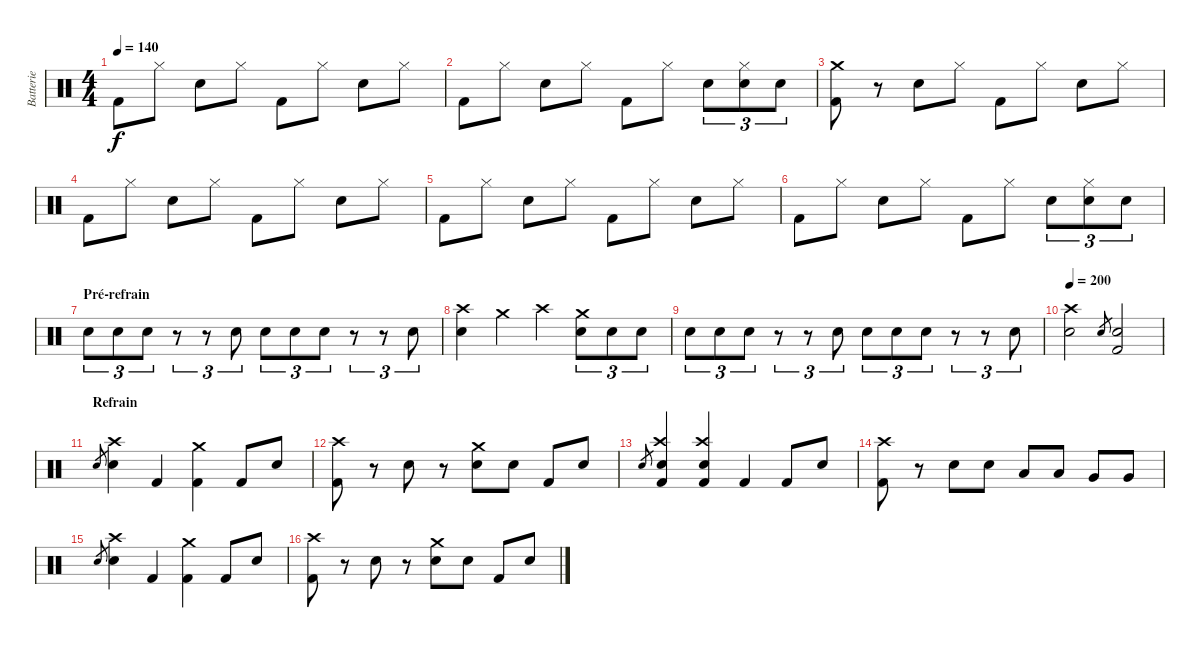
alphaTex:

\track ("Batterie" "Batterie") {instrument percussion}
\staff {score}
\articulation defaults
\ts (4 4)
\tempo 140
\clef neutral
\ks c "Kick (hit) 2".8{dy f} "Hi-Hat (closed)".8 "Electric Snare (hit)".8 "Hi-Hat (closed)".8 "Kick (hit) 2".8 "Hi-Hat (closed)".8 "Electric Snare (hit)".8 "Hi-Hat (closed)".8
|
"Kick (hit) 2".8 "Hi-Hat (closed)".8 "Electric Snare (hit)".8 "Hi-Hat (closed)".8 "Kick (hit) 2".8 "Hi-Hat (closed)".8 "Electric Snare (hit)".8{tu (3 2)} ("Hi-Hat (closed)" "Electric Snare (hit)").8{tu (3 2)} "Electric Snare (hit)".8{tu (3 2)} |
("Crash medium (hit)" "Kick (hit) 2").8 r.8 "Electric Snare (hit)".8 "Hi-Hat (closed)".8 "Kick (hit) 2".8 "Hi-Hat (closed)".8 "Electric Snare (hit)".8 "Hi-Hat (closed)".8 |
"Kick (hit) 2".8 "Hi-Hat (closed)".8 "Electric Snare (hit)".8 "Hi-Hat (closed)".8 "Kick (hit) 2".8 "Hi-Hat (closed)".8 "Electric Snare (hit)".8 "Hi-Hat (closed)".8 |
"Kick (hit) 2".8 "Hi-Hat (closed)".8 "Electric Snare (hit)".8 "Hi-Hat (closed)".8 "Kick (hit) 2".8 "Hi-Hat (closed)".8 "Electric Snare (hit)".8 "Hi-Hat (closed)".8 |
"Kick (hit) 2".8 "Hi-Hat (closed)".8 "Electric Snare (hit)".8 "Hi-Hat (closed)".8 "Kick (hit) 2".8 "Hi-Hat (closed)".8 "Electric Snare (hit)".8{tu (3 2)} ("Hi-Hat (closed)" "Electric Snare (hit)").8{tu (3 2)} "Electric Snare (hit)".8{tu (3 2)} |
\section ("" "Pré-refrain")
"Electric Snare (hit)".8{tu (3 2)} "Electric Snare (hit)".8{tu (3 2)} "Electric Snare (hit)".8{tu (3 2)} r.8{tu (3 2)} r.8{tu (3 2)} "Electric Snare (hit)".8{tu (3 2)} "Electric Snare (hit)".8{tu (3 2)} "Electric Snare (hit)".8{tu (3 2)} "Electric Snare (hit)".8{tu (3 2)} r.8{tu (3 2)} r.8{tu (3 2)} "Electric Snare (hit)".8{tu (3 2)} |
("Crash high (hit)" "Electric Snare (hit)").4 "Crash medium (hit)".4 "Crash high (hit)".4 ("Crash medium (hit)" "Electric Snare (hit)").8{tu (3 2)} "Electric Snare (hit)".8{tu (3 2)} "Electric Snare (hit)".8{tu (3 2)} |
"Electric Snare (hit)".8{tu (3 2)} "Electric Snare (hit)".8{tu (3 2)} "Electric Snare (hit)".8{tu (3 2)} r.8{tu (3 2)} r.8{tu (3 2)} "Electric Snare (hit)".8{tu (3 2)} "Electric Snare (hit)".8{tu (3 2)} "Electric Snare (hit)".8{tu (3 2)} "Electric Snare (hit)".8{tu (3 2)} r.8{tu (3 2)} r.8{tu (3 2)} "Electric Snare (hit)".8{tu (3 2)} |
\tempo 200
("Crash high (hit)" "Electric Snare (hit)").2 "Snare (hit) 2".8{gr} ("Snare (hit) 2" "Kick (hit) 2").2 |
\section ("" "Refrain")
"Snare (hit) 2".8{gr} ("Crash high (hit)" "Snare (hit) 2").4 "Kick (hit) 2".4 ("Crash medium (hit)" "Kick (hit) 2").4 "Kick (hit) 2".8 "Snare (hit) 2".8 |
("Crash high (hit)" "Kick (hit) 2").8 r.8 "Snare (hit) 2".8 r.8 ("Crash medium (hit)" "Snare (hit) 2").8 "Snare (hit) 2".8 "Kick (hit) 2".8 "Snare (hit) 2".8 |
"Snare (hit) 2".8{gr} ("Crash high (hit)" "Snare (hit) 2" "Kick (hit) 2").4 ("Crash high (hit)" "Snare (hit) 2" "Kick (hit) 2").4 "Kick (hit) 2".4 "Kick (hit) 2".8 "Snare (hit) 2".8 |
("Crash high (hit)" "Kick (hit) 2").8 r.8 "Snare (hit) 2".8 "Snare (hit) 2".8 "Low Tom (hit)".8 "Low Tom (hit)".8 "Very Low Tom (hit)".8 "Very Low Tom (hit)".8 |
"Snare (hit) 2".8{gr} ("Crash high (hit)" "Snare (hit) 2").4 "Kick (hit) 2".4 ("Crash medium (hit)" "Kick (hit) 2").4 "Kick (hit) 2".8 "Snare (hit) 2".8 |
("Crash high (hit)" "Kick (hit) 2").8 r.8 "Snare (hit) 2".8 r.8 ("Crash medium (hit)" "Snare (hit) 2").8 "Snare (hit) 2".8 "Kick (hit) 2".8 "Snare (hit) 2".8
